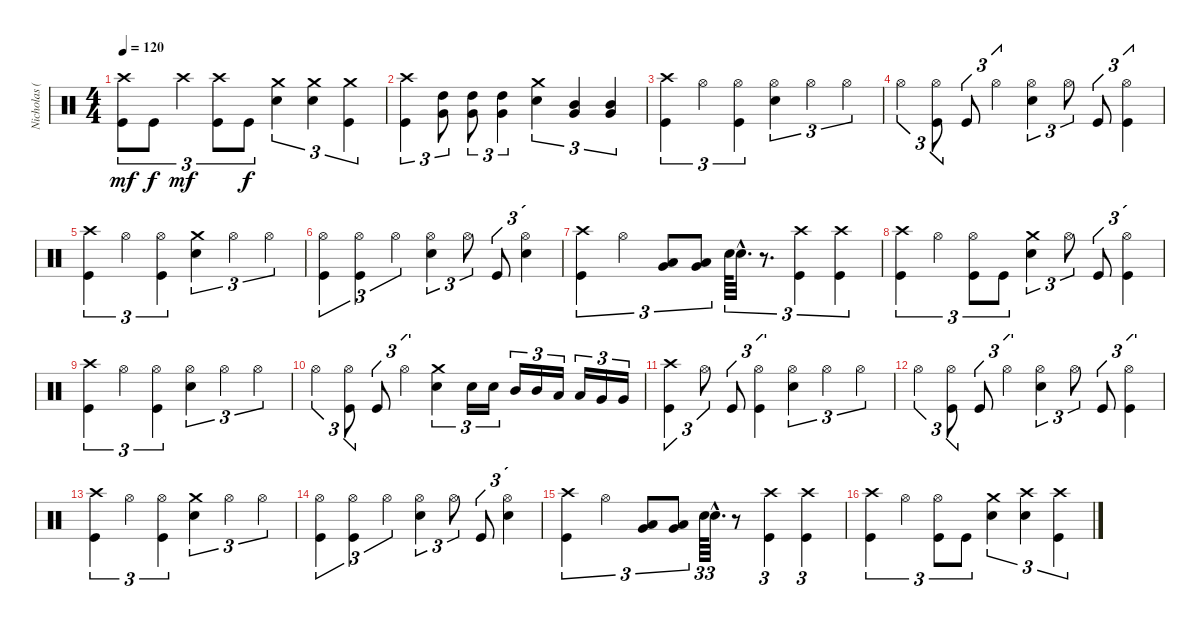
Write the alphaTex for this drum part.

\track ("Nicholas (Drums)" "Nicholas (") {instrument percussion}
\staff {score}
\articulation defaults
\ts (4 4)
\tempo 120
\clef neutral
\ks c
("Crash high (hit)" "Kick (hit)").8{tu (3 2) dy mf} "Kick (hit)".8{tu (3 2) dy f} "Crash high (hit)".4{tu (3 2) dy mf} ("Crash high (hit)" "Kick (hit)").8{tu (3 2)} "Kick (hit)".8{tu (3 2) dy f} ("Crash medium (hit)" "Electric Snare (hit)").4{tu (3 2)} ("Crash medium (hit)" "Electric Snare (hit)").4{tu (3 2)} ("Crash medium (hit)" "Kick (hit)").4{tu (3 2)} |
("Crash high (hit)" "Kick (hit)").4{tu (3 2)} ("High Tom (hit)" "Very Low Tom (hit)").8{tu (3 2)} ("High Tom (hit)" "Very Low Tom (hit)").8{tu (3 2)} ("High Tom (hit)" "Very Low Tom (hit)").4{tu (3 2)} ("Crash medium (hit)" "Electric Snare (hit)").4{tu (3 2)} ("Mid Tom (hit)" "Very Low Tom (hit)").4{tu (3 2)} ("Mid Tom (hit)" "Very Low Tom (hit)").4{tu (3 2)} |
("Crash high (hit)" "Kick (hit)").4{tu (3 2)} "Hi-Hat (open)".4{tu (3 2)} ("Hi-Hat (open)" "Kick (hit)").4{tu (3 2)} ("Hi-Hat (open)" "Electric Snare (hit)").4{tu (3 2)} "Hi-Hat (open)".4{tu (3 2)} "Hi-Hat (open)".4{tu (3 2)} |
"Hi-Hat (open)".4{tu (3 2)} ("Hi-Hat (open)" "Kick (hit)").8{tu (3 2)} "Kick (hit)".8{tu (3 2)} "Hi-Hat (open)".4{tu (3 2)} ("Hi-Hat (open)" "Electric Snare (hit)").4{tu (3 2)} "Hi-Hat (open)".8{tu (3 2)} "Kick (hit)".8{tu (3 2)} ("Hi-Hat (open)" "Kick (hit)").4{tu (3 2)} |
("Crash high (hit)" "Kick (hit)").4{tu (3 2)} "Hi-Hat (open)".4{tu (3 2)} ("Hi-Hat (open)" "Kick (hit)").4{tu (3 2)} ("Crash medium (hit)" "Electric Snare (hit)").4{tu (3 2)} "Hi-Hat (open)".4{tu (3 2)} "Hi-Hat (open)".4{tu (3 2)} |
("Hi-Hat (open)" "Kick (hit)").4{tu (3 2)} ("Hi-Hat (open)" "Kick (hit)").4{tu (3 2)} "Hi-Hat (open)".4{tu (3 2)} ("Hi-Hat (open)" "Electric Snare (hit)").4{tu (3 2)} "Hi-Hat (open)".8{tu (3 2)} "Kick (hit)".8{tu (3 2)} ("Hi-Hat (open)" "Electric Snare (hit)").4{tu (3 2)} |
("Crash high (hit)" "Kick (hit)").4{tu (3 2)} "Hi-Hat (open)".4{tu (3 2)} ("Low Tom (hit)" "Very Low Tom (hit)").8{tu (3 2)} ("Low Tom (hit)" "Very Low Tom (hit)").8{tu (3 2)} "Electric Snare (hit)".64{tu (3 2)} "Electric Snare (hit)"{hac}.32{d tu (3 2)} r.8{d tu (3 2)} ("Crash high (hit)" "Kick (hit)").4{tu (3 2)} ("Crash high (hit)" "Kick (hit)").4{tu (3 2)} |
("Crash high (hit)" "Kick (hit)").4{tu (3 2)} "Hi-Hat (open)".4{tu (3 2)} ("Hi-Hat (open)" "Kick (hit)").8{tu (3 2)} "Kick (hit)".8{tu (3 2)} ("Crash medium (hit)" "Electric Snare (hit)").4{tu (3 2)} "Hi-Hat (open)".8{tu (3 2)} "Kick (hit)".8{tu (3 2)} ("Hi-Hat (open)" "Kick (hit)").4{tu (3 2)} |
("Crash high (hit)" "Kick (hit)").4{tu (3 2)} "Hi-Hat (open)".4{tu (3 2)} ("Hi-Hat (open)" "Kick (hit)").4{tu (3 2)} ("Hi-Hat (open)" "Electric Snare (hit)").4{tu (3 2)} "Hi-Hat (open)".4{tu (3 2)} "Hi-Hat (open)".4{tu (3 2)} |
"Hi-Hat (open)".4{tu (3 2)} ("Hi-Hat (open)" "Kick (hit)").8{tu (3 2)} "Kick (hit)".8{tu (3 2)} "Hi-Hat (open)".4{tu (3 2)} ("Crash medium (hit)" "Electric Snare (hit)").4{tu (3 2)} "Electric Snare (hit)".16{tu (3 2)} "Electric Snare (hit)".16{tu (3 2)} "Mid Tom (hit)".16{tu (3 2)} "Mid Tom (hit)".16{tu (3 2)} "Low Tom (hit)".16{tu (3 2)} "Low Tom (hit)".16{tu (3 2)} "Very Low Tom (hit)".16{tu (3 2)} "Very Low Tom (hit)".16{tu (3 2)} |
("Crash high (hit)" "Kick (hit)").4{tu (3 2)} "Hi-Hat (open)".8{tu (3 2)} "Kick (hit)".8{tu (3 2)} ("Hi-Hat (open)" "Kick (hit)").4{tu (3 2)} ("Hi-Hat (open)" "Electric Snare (hit)").4{tu (3 2)} "Hi-Hat (open)".4{tu (3 2)} "Hi-Hat (open)".4{tu (3 2)} |
"Hi-Hat (open)".4{tu (3 2)} ("Hi-Hat (open)" "Kick (hit)").8{tu (3 2)} "Kick (hit)".8{tu (3 2)} "Hi-Hat (open)".4{tu (3 2)} ("Hi-Hat (open)" "Electric Snare (hit)").4{tu (3 2)} "Hi-Hat (open)".8{tu (3 2)} "Kick (hit)".8{tu (3 2)} ("Hi-Hat (open)" "Kick (hit)").4{tu (3 2)} |
("Crash high (hit)" "Kick (hit)").4{tu (3 2)} "Hi-Hat (open)".4{tu (3 2)} ("Hi-Hat (open)" "Kick (hit)").4{tu (3 2)} ("Crash medium (hit)" "Electric Snare (hit)").4{tu (3 2)} "Hi-Hat (open)".4{tu (3 2)} "Hi-Hat (open)".4{tu (3 2)} |
("Hi-Hat (open)" "Kick (hit)").4{tu (3 2)} ("Hi-Hat (open)" "Kick (hit)").4{tu (3 2)} "Hi-Hat (open)".4{tu (3 2)} ("Hi-Hat (open)" "Electric Snare (hit)").4{tu (3 2)} "Hi-Hat (open)".8{tu (3 2)} "Kick (hit)".8{tu (3 2)} ("Hi-Hat (open)" "Electric Snare (hit)").4{tu (3 2)} |
("Crash high (hit)" "Kick (hit)").4{tu (3 2)} "Hi-Hat (open)".4{tu (3 2)} ("Low Tom (hit)" "Very Low Tom (hit)").8{tu (3 2)} ("Low Tom (hit)" "Very Low Tom (hit)").8{tu (3 2)} "Electric Snare (hit)".64{tu (3 2)} "Electric Snare (hit)"{hac}.32{d tu (3 2)} r.8 ("Crash high (hit)" "Kick (hit)").4{tu (3 2)} ("Crash high (hit)" "Kick (hit)").4{tu (3 2)} |
("Crash high (hit)" "Kick (hit)").4{tu (3 2)} "Hi-Hat (open)".4{tu (3 2)} ("Hi-Hat (open)" "Kick (hit)").8{tu (3 2)} "Kick (hit)".8{tu (3 2)} ("Crash medium (hit)" "Electric Snare (hit)").4{tu (3 2)} ("Crash high (hit)" "Electric Snare (hit)").4{tu (3 2)} ("Crash high (hit)" "Kick (hit)").4{tu (3 2)}
